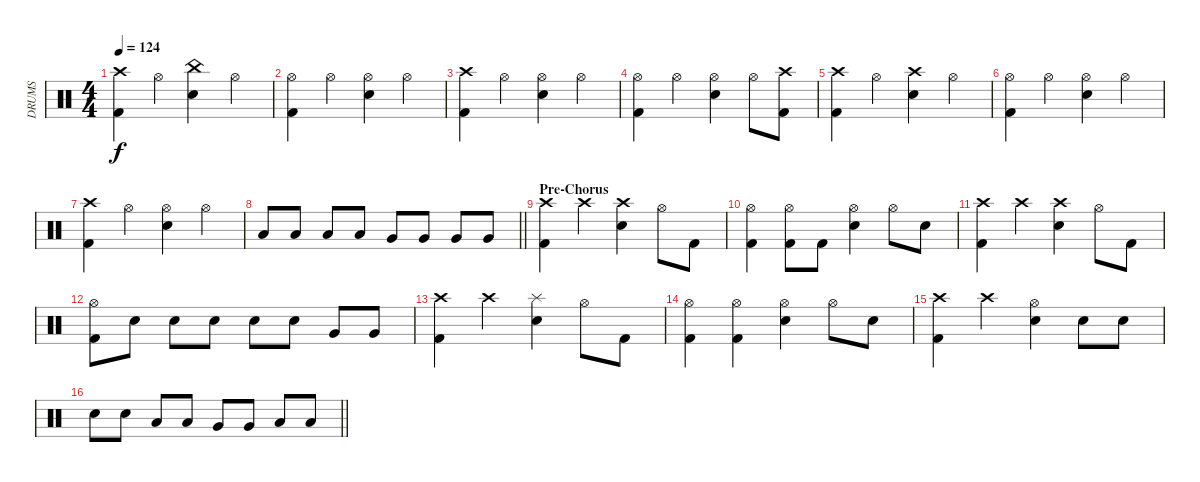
\track ("DRUMS" "DRUMS") {instrument percussion}
\staff {score}
\articulation defaults
\ts (4 4)
\tempo 124
\clef neutral
\ks c
("Crash high (hit)" "Kick (hit) 2").4{dy f} "Hi-Hat (open)".4 ("China (hit)" "Snare (hit) 2").4 "Hi-Hat (open)".4 |
("Hi-Hat (open)" "Kick (hit) 2").4 "Hi-Hat (open)".4 ("Hi-Hat (open)" "Snare (hit) 2").4 "Hi-Hat (open)".4 |
("Crash high (hit)" "Kick (hit) 2").4 "Hi-Hat (open)".4 ("Hi-Hat (open)" "Snare (hit) 2").4 "Hi-Hat (open)".4 |
("Hi-Hat (open)" "Kick (hit) 2").4 "Hi-Hat (open)".4 ("Hi-Hat (open)" "Snare (hit) 2").4 "Hi-Hat (open)".8 ("Crash high (hit)" "Kick (hit) 2").8 |
("Crash high (hit)" "Kick (hit) 2").4 "Hi-Hat (open)".4 ("Crash high (hit)" "Snare (hit) 2").4 "Hi-Hat (open)".4 |
("Hi-Hat (open)" "Kick (hit) 2").4 "Hi-Hat (open)".4 ("Hi-Hat (open)" "Snare (hit) 2").4 "Hi-Hat (open)".4 |
("Crash high (hit)" "Kick (hit) 2").4 "Hi-Hat (open)".4 ("Hi-Hat (open)" "Snare (hit) 2").4 "Hi-Hat (open)".4 |
\barLineRight lightlight "Low Tom (hit)".8 "Low Tom (hit)".8 "Low Tom (hit)".8 "Low Tom (hit)".8 "Very Low Tom (hit)".8 "Very Low Tom (hit)".8 "Very Low Tom (hit)".8 "Very Low Tom (hit)".8
|
\section ("" "Pre-Chorus")
("Crash high (hit)" "Kick (hit) 2").4 "Crash high (hit)".4 ("Crash high (hit)" "Snare (hit) 2").4 "Hi-Hat (open)".8 "Kick (hit) 2".8 |
("Hi-Hat (open)" "Kick (hit) 2").4 ("Hi-Hat (open)" "Kick (hit) 2").8 "Kick (hit) 2".8 ("Hi-Hat (open)" "Snare (hit) 2").4 "Hi-Hat (open)".8 "Snare (hit) 2".8 |
("Crash high (hit)" "Kick (hit) 2").4 "Crash high (hit)".4 ("Crash high (hit)" "Snare (hit) 2").4 "Hi-Hat (open)".8 "Kick (hit) 2".8 |
("Hi-Hat (open)" "Kick (hit) 2").8 "Snare (hit) 2".8 "Snare (hit) 2".8 "Snare (hit) 2".8 "Snare (hit) 2".8 "Snare (hit) 2".8 "Very Low Tom (hit)".8 "Very Low Tom (hit)".8 |
("Crash high (hit)" "Kick (hit) 2").4 "Crash high (hit)".4 ("Splash (hit)" "Snare (hit) 2").4 "Hi-Hat (open)".8 "Kick (hit) 2".8 |
("Hi-Hat (open)" "Kick (hit) 2").4 ("Hi-Hat (open)" "Kick (hit) 2").4 ("Hi-Hat (open)" "Snare (hit) 2").4 "Hi-Hat (open)".8 "Snare (hit) 2".8 |
("Crash high (hit)" "Kick (hit) 2").4 "Crash high (hit)".4 ("Hi-Hat (open)" "Snare (hit) 2").4 "Snare (hit) 2".8 "Snare (hit) 2".8 |
\barLineRight lightlight "Snare (hit) 2".8 "Snare (hit) 2".8 "Low Tom (hit)".8 "Low Tom (hit)".8 "Very Low Tom (hit)".8 "Very Low Tom (hit)".8 "Low Floor Tom (hit)".8 "Low Floor Tom (hit)".8
